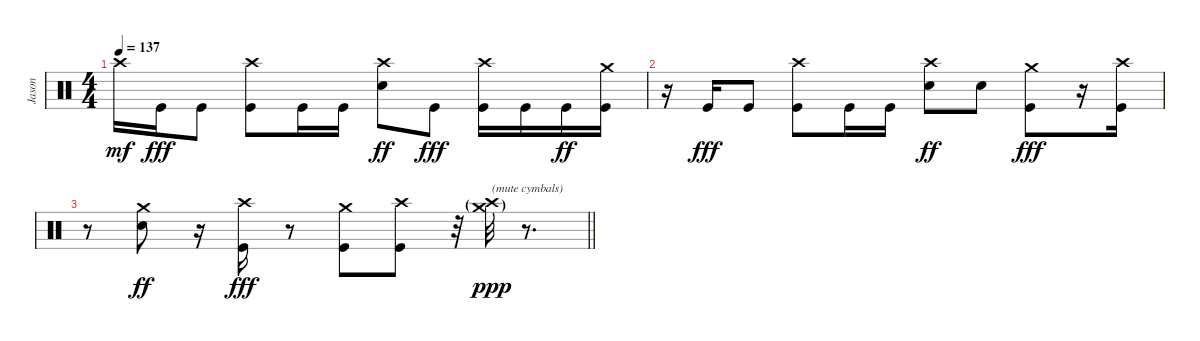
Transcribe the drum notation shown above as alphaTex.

\track ("Jason" "Jason") {instrument percussion}
\staff {score}
\articulation defaults
\ts (4 4)
\tempo 137
\clef neutral
\ks c "Crash high (hit)".16{dy mf} "Kick (hit)".16{dy fff} "Kick (hit)".8
("Crash high (hit)" "Kick (hit)").8 "Kick (hit)".16 "Kick (hit)".16 ("Crash high (hit)" "Electric Snare (hit)").8{dy ff} "Kick (hit)".8{dy fff} ("Crash high (hit)" "Kick (hit)").16 "Kick (hit)".16 "Kick (hit)".16{dy ff} ("Crash medium (hit)" "Kick (hit)").16 |
r.16 "Kick (hit)".16{dy fff} "Kick (hit)".8 ("Crash high (hit)" "Kick (hit)").8 "Kick (hit)".16 "Kick (hit)".16 ("Crash high (hit)" "Electric Snare (hit)").8{dy ff} "Electric Snare (hit)".8 ("Crash medium (hit)" "Kick (hit)").8{dy fff} r.16 ("Crash high (hit)" "Kick (hit)").16 |
\barLineRight lightlight
r.8 ("Crash medium (hit)" "Electric Snare (hit)").8{dy ff} r.16 ("Crash high (hit)" "Kick (hit)").16{dy fff} r.8 ("Crash medium (hit)" "Kick (hit)").8 ("Crash high (hit)" "Kick (hit)").8 r.32 ("Crash high (hit)"{g} "Crash medium (hit)"{g}).32{txt "(mute cymbals)" dy ppp} r.8{d}
